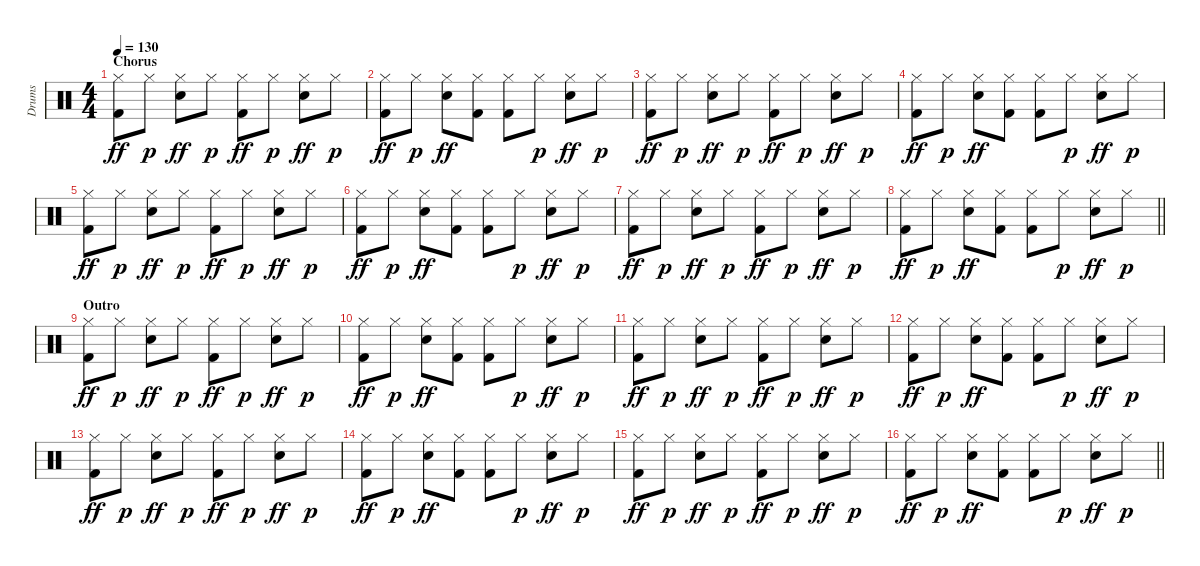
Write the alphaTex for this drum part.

\track ("Drums" "Drums") {instrument percussion}
\staff {score}
\articulation defaults
\ts (4 4)
\section ("" "Chorus")
\tempo 130
\clef neutral
\ks c
("Hi-Hat (closed)" "Kick (hit) 2").8{dy ff} "Hi-Hat (closed)".8{dy p} ("Hi-Hat (closed)" "Electric Snare (hit)").8{dy ff} "Hi-Hat (closed)".8{dy p} ("Hi-Hat (closed)" "Kick (hit) 2").8{dy ff} "Hi-Hat (closed)".8{dy p} ("Hi-Hat (closed)" "Electric Snare (hit)").8{dy ff} "Hi-Hat (closed)".8{dy p} |
("Hi-Hat (closed)" "Kick (hit) 2").8{dy ff} "Hi-Hat (closed)".8{dy p} ("Hi-Hat (closed)" "Electric Snare (hit)").8{dy ff} ("Hi-Hat (closed)" "Kick (hit) 2").8 ("Hi-Hat (closed)" "Kick (hit) 2").8 "Hi-Hat (closed)".8{dy p} ("Hi-Hat (closed)" "Electric Snare (hit)").8{dy ff} "Hi-Hat (closed)".8{dy p} |
("Hi-Hat (closed)" "Kick (hit) 2").8{dy ff} "Hi-Hat (closed)".8{dy p} ("Hi-Hat (closed)" "Electric Snare (hit)").8{dy ff} "Hi-Hat (closed)".8{dy p} ("Hi-Hat (closed)" "Kick (hit) 2").8{dy ff} "Hi-Hat (closed)".8{dy p} ("Hi-Hat (closed)" "Electric Snare (hit)").8{dy ff} "Hi-Hat (closed)".8{dy p} |
("Hi-Hat (closed)" "Kick (hit) 2").8{dy ff} "Hi-Hat (closed)".8{dy p} ("Hi-Hat (closed)" "Electric Snare (hit)").8{dy ff} ("Hi-Hat (closed)" "Kick (hit) 2").8 ("Hi-Hat (closed)" "Kick (hit) 2").8 "Hi-Hat (closed)".8{dy p} ("Hi-Hat (closed)" "Electric Snare (hit)").8{dy ff} "Hi-Hat (closed)".8{dy p} |
("Hi-Hat (closed)" "Kick (hit) 2").8{dy ff} "Hi-Hat (closed)".8{dy p} ("Hi-Hat (closed)" "Electric Snare (hit)").8{dy ff} "Hi-Hat (closed)".8{dy p} ("Hi-Hat (closed)" "Kick (hit) 2").8{dy ff} "Hi-Hat (closed)".8{dy p} ("Hi-Hat (closed)" "Electric Snare (hit)").8{dy ff} "Hi-Hat (closed)".8{dy p} |
("Hi-Hat (closed)" "Kick (hit) 2").8{dy ff} "Hi-Hat (closed)".8{dy p} ("Hi-Hat (closed)" "Electric Snare (hit)").8{dy ff} ("Hi-Hat (closed)" "Kick (hit) 2").8 ("Hi-Hat (closed)" "Kick (hit) 2").8 "Hi-Hat (closed)".8{dy p} ("Hi-Hat (closed)" "Electric Snare (hit)").8{dy ff} "Hi-Hat (closed)".8{dy p} |
("Hi-Hat (closed)" "Kick (hit) 2").8{dy ff} "Hi-Hat (closed)".8{dy p} ("Hi-Hat (closed)" "Electric Snare (hit)").8{dy ff} "Hi-Hat (closed)".8{dy p} ("Hi-Hat (closed)" "Kick (hit) 2").8{dy ff} "Hi-Hat (closed)".8{dy p} ("Hi-Hat (closed)" "Electric Snare (hit)").8{dy ff} "Hi-Hat (closed)".8{dy p} |
\barLineRight lightlight
("Hi-Hat (closed)" "Kick (hit) 2").8{dy ff} "Hi-Hat (closed)".8{dy p} ("Hi-Hat (closed)" "Electric Snare (hit)").8{dy ff} ("Hi-Hat (closed)" "Kick (hit) 2").8 ("Hi-Hat (closed)" "Kick (hit) 2").8 "Hi-Hat (closed)".8{dy p} ("Hi-Hat (closed)" "Electric Snare (hit)").8{dy ff} "Hi-Hat (closed)".8{dy p} |
\section ("" "Outro")
("Hi-Hat (closed)" "Kick (hit) 2").8{dy ff} "Hi-Hat (closed)".8{dy p} ("Hi-Hat (closed)" "Electric Snare (hit)").8{dy ff} "Hi-Hat (closed)".8{dy p} ("Hi-Hat (closed)" "Kick (hit) 2").8{dy ff} "Hi-Hat (closed)".8{dy p} ("Hi-Hat (closed)" "Electric Snare (hit)").8{dy ff} "Hi-Hat (closed)".8{dy p} |
("Hi-Hat (closed)" "Kick (hit) 2").8{dy ff} "Hi-Hat (closed)".8{dy p} ("Hi-Hat (closed)" "Electric Snare (hit)").8{dy ff} ("Hi-Hat (closed)" "Kick (hit) 2").8 ("Hi-Hat (closed)" "Kick (hit) 2").8 "Hi-Hat (closed)".8{dy p} ("Hi-Hat (closed)" "Electric Snare (hit)").8{dy ff} "Hi-Hat (closed)".8{dy p} |
("Hi-Hat (closed)" "Kick (hit) 2").8{dy ff} "Hi-Hat (closed)".8{dy p} ("Hi-Hat (closed)" "Electric Snare (hit)").8{dy ff} "Hi-Hat (closed)".8{dy p} ("Hi-Hat (closed)" "Kick (hit) 2").8{dy ff} "Hi-Hat (closed)".8{dy p} ("Hi-Hat (closed)" "Electric Snare (hit)").8{dy ff} "Hi-Hat (closed)".8{dy p} |
("Hi-Hat (closed)" "Kick (hit) 2").8{dy ff} "Hi-Hat (closed)".8{dy p} ("Hi-Hat (closed)" "Electric Snare (hit)").8{dy ff} ("Hi-Hat (closed)" "Kick (hit) 2").8 ("Hi-Hat (closed)" "Kick (hit) 2").8 "Hi-Hat (closed)".8{dy p} ("Hi-Hat (closed)" "Electric Snare (hit)").8{dy ff} "Hi-Hat (closed)".8{dy p} |
("Hi-Hat (closed)" "Kick (hit) 2").8{dy ff} "Hi-Hat (closed)".8{dy p} ("Hi-Hat (closed)" "Electric Snare (hit)").8{dy ff} "Hi-Hat (closed)".8{dy p} ("Hi-Hat (closed)" "Kick (hit) 2").8{dy ff} "Hi-Hat (closed)".8{dy p} ("Hi-Hat (closed)" "Electric Snare (hit)").8{dy ff} "Hi-Hat (closed)".8{dy p} |
("Hi-Hat (closed)" "Kick (hit) 2").8{dy ff} "Hi-Hat (closed)".8{dy p} ("Hi-Hat (closed)" "Electric Snare (hit)").8{dy ff} ("Hi-Hat (closed)" "Kick (hit) 2").8 ("Hi-Hat (closed)" "Kick (hit) 2").8 "Hi-Hat (closed)".8{dy p} ("Hi-Hat (closed)" "Electric Snare (hit)").8{dy ff} "Hi-Hat (closed)".8{dy p} |
("Hi-Hat (closed)" "Kick (hit) 2").8{dy ff} "Hi-Hat (closed)".8{dy p} ("Hi-Hat (closed)" "Electric Snare (hit)").8{dy ff} "Hi-Hat (closed)".8{dy p} ("Hi-Hat (closed)" "Kick (hit) 2").8{dy ff} "Hi-Hat (closed)".8{dy p} ("Hi-Hat (closed)" "Electric Snare (hit)").8{dy ff} "Hi-Hat (closed)".8{dy p} |
\barLineRight lightlight
("Hi-Hat (closed)" "Kick (hit) 2").8{dy ff} "Hi-Hat (closed)".8{dy p} ("Hi-Hat (closed)" "Electric Snare (hit)").8{dy ff} ("Hi-Hat (closed)" "Kick (hit) 2").8 ("Hi-Hat (closed)" "Kick (hit) 2").8 "Hi-Hat (closed)".8{dy p} ("Hi-Hat (closed)" "Electric Snare (hit)").8{dy ff} "Hi-Hat (closed)".8{dy p}
